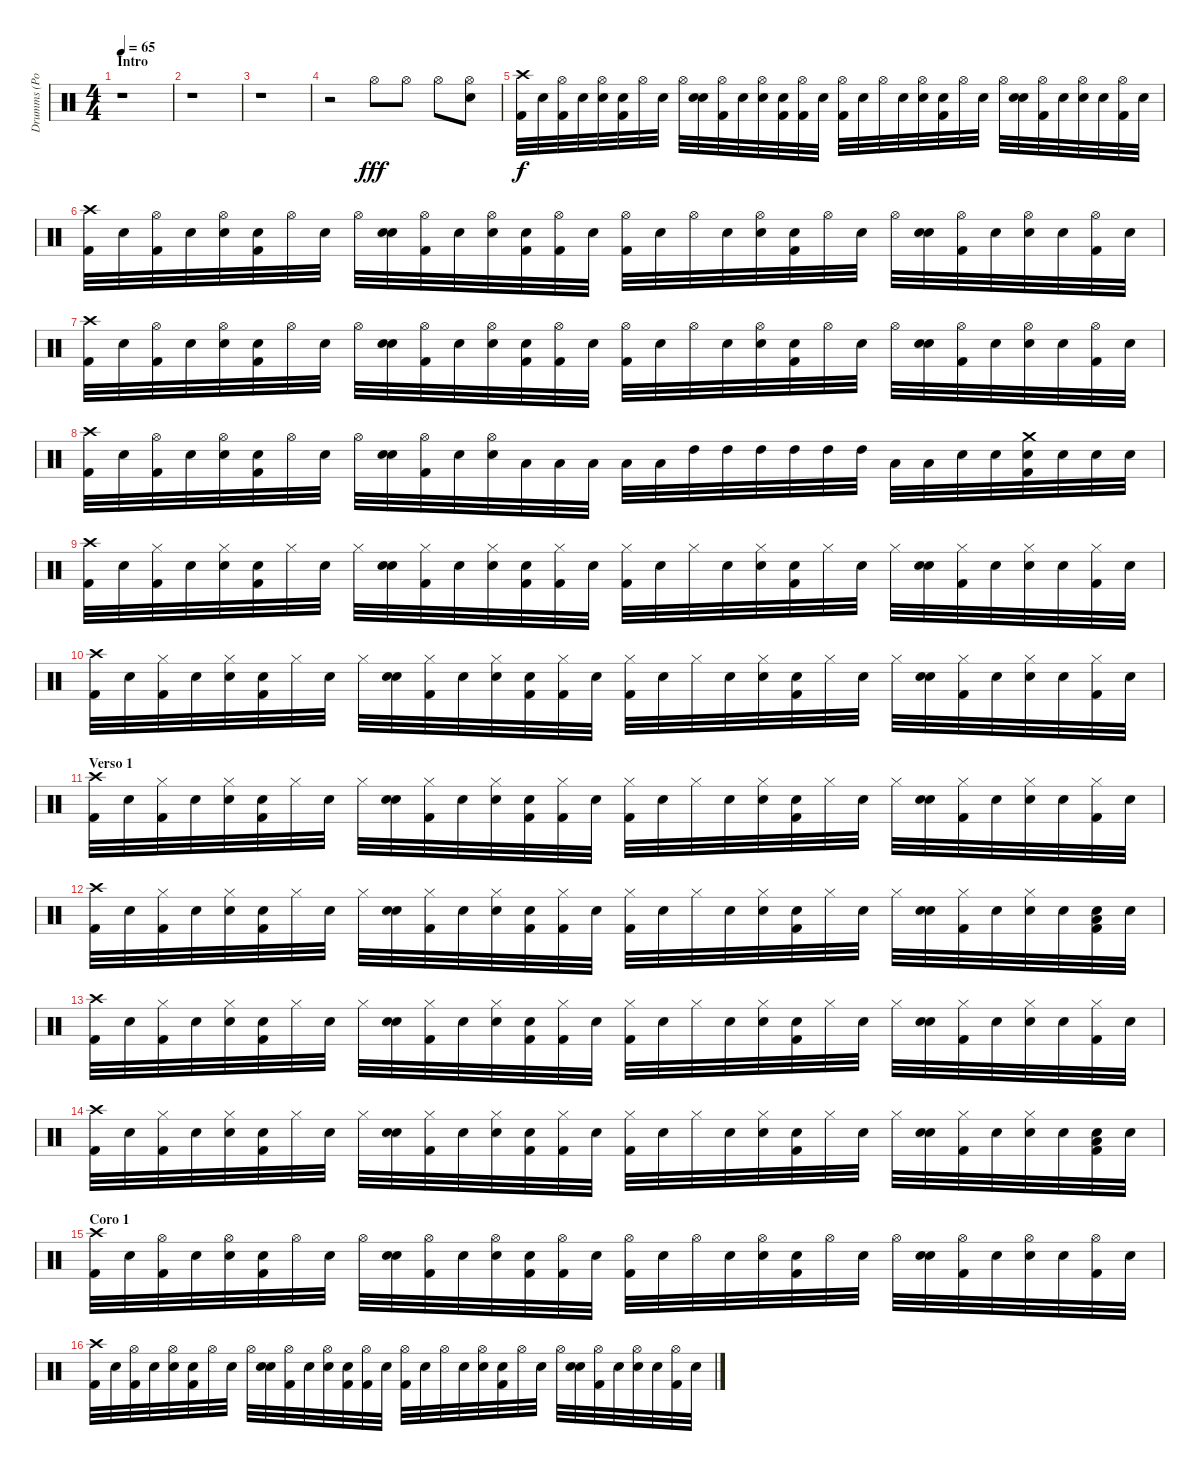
\track ("Drumms (Poll0)" "Drumms (Po") {instrument percussion}
\staff {score}
\articulation defaults
\ts (4 4)
\section ("" "Intro")
\tempo 65
\clef neutral
\ks c
r.1{dy fff} |
r.1 |
r.1 |
r.2 "Hi-Hat (open)".8 "Hi-Hat (open)".8 "Hi-Hat (open)".8 ("Hi-Hat (open)" "Snare (hit) 2").8 |
("Crash high (hit)" "Kick (hit) 2").32{dy f} "Snare (hit)".32 ("Hi-Hat (open)" "Kick (hit) 2").32 "Snare (hit)".32 ("Hi-Hat (open)" "Snare (hit) 2").32 ("Snare (hit)" "Kick (hit) 2").32 "Hi-Hat (open)".32 "Snare (hit)".32 "Hi-Hat (open)".32 ("Snare (hit)" "Snare (hit) 2").32 ("Hi-Hat (open)" "Kick (hit) 2").32 "Snare (hit)".32 ("Hi-Hat (open)" "Snare (hit) 2").32 ("Snare (hit)" "Kick (hit) 2").32 ("Hi-Hat (open)" "Kick (hit) 2").32 "Snare (hit)".32 ("Hi-Hat (open)" "Kick (hit) 2").32 "Snare (hit)".32 "Hi-Hat (open)".32 "Snare (hit)".32 ("Hi-Hat (open)" "Snare (hit) 2").32 ("Snare (hit)" "Kick (hit) 2").32 "Hi-Hat (open)".32 "Snare (hit)".32 "Hi-Hat (open)".32 ("Snare (hit)" "Snare (hit) 2").32 ("Hi-Hat (open)" "Kick (hit) 2").32 "Snare (hit)".32 ("Hi-Hat (open)" "Snare (hit) 2").32 "Snare (hit)".32 ("Hi-Hat (open)" "Kick (hit) 2").32 "Snare (hit)".32 |
("Crash high (hit)" "Kick (hit) 2").32 "Snare (hit)".32 ("Hi-Hat (open)" "Kick (hit) 2").32 "Snare (hit)".32 ("Hi-Hat (open)" "Snare (hit) 2").32 ("Snare (hit)" "Kick (hit) 2").32 "Hi-Hat (open)".32 "Snare (hit)".32 "Hi-Hat (open)".32 ("Snare (hit)" "Snare (hit) 2").32 ("Hi-Hat (open)" "Kick (hit) 2").32 "Snare (hit)".32 ("Hi-Hat (open)" "Snare (hit) 2").32 ("Snare (hit)" "Kick (hit) 2").32 ("Hi-Hat (open)" "Kick (hit) 2").32 "Snare (hit)".32 ("Hi-Hat (open)" "Kick (hit) 2").32 "Snare (hit)".32 "Hi-Hat (open)".32 "Snare (hit)".32 ("Hi-Hat (open)" "Snare (hit) 2").32 ("Snare (hit)" "Kick (hit) 2").32 "Hi-Hat (open)".32 "Snare (hit)".32 "Hi-Hat (open)".32 ("Snare (hit)" "Snare (hit) 2").32 ("Hi-Hat (open)" "Kick (hit) 2").32 "Snare (hit)".32 ("Hi-Hat (open)" "Snare (hit) 2").32 "Snare (hit)".32 ("Hi-Hat (open)" "Kick (hit) 2").32 "Snare (hit)".32 |
("Crash high (hit)" "Kick (hit) 2").32 "Snare (hit)".32 ("Hi-Hat (open)" "Kick (hit) 2").32 "Snare (hit)".32 ("Hi-Hat (open)" "Snare (hit) 2").32 ("Snare (hit)" "Kick (hit) 2").32 "Hi-Hat (open)".32 "Snare (hit)".32 "Hi-Hat (open)".32 ("Snare (hit)" "Snare (hit) 2").32 ("Hi-Hat (open)" "Kick (hit) 2").32 "Snare (hit)".32 ("Hi-Hat (open)" "Snare (hit) 2").32 ("Snare (hit)" "Kick (hit) 2").32 ("Hi-Hat (open)" "Kick (hit) 2").32 "Snare (hit)".32 ("Hi-Hat (open)" "Kick (hit) 2").32 "Snare (hit)".32 "Hi-Hat (open)".32 "Snare (hit)".32 ("Hi-Hat (open)" "Snare (hit) 2").32 ("Snare (hit)" "Kick (hit) 2").32 "Hi-Hat (open)".32 "Snare (hit)".32 "Hi-Hat (open)".32 ("Snare (hit)" "Snare (hit) 2").32 ("Hi-Hat (open)" "Kick (hit) 2").32 "Snare (hit)".32 ("Hi-Hat (open)" "Snare (hit) 2").32 "Snare (hit)".32 ("Hi-Hat (open)" "Kick (hit) 2").32 "Snare (hit)".32 |
("Crash high (hit)" "Kick (hit) 2").32 "Snare (hit)".32 ("Hi-Hat (open)" "Kick (hit) 2").32 "Snare (hit)".32 ("Hi-Hat (open)" "Snare (hit) 2").32 ("Snare (hit)" "Kick (hit) 2").32 "Hi-Hat (open)".32 "Snare (hit)".32 "Hi-Hat (open)".32 ("Snare (hit)" "Snare (hit) 2").32 ("Hi-Hat (open)" "Kick (hit) 2").32 "Snare (hit)".32 ("Hi-Hat (open)" "Snare (hit) 2").32 "Low Floor Tom (hit)".32 "Low Floor Tom (hit)".32 "Low Floor Tom (hit)".32 "Low Floor Tom (hit)".32 "Low Floor Tom (hit)".32 "High Tom (hit)".32 "High Tom (hit)".32 "High Tom (hit)".32 "High Tom (hit)".32 "High Tom (hit)".32 "High Tom (hit)".32 "Low Tom (hit)".32 "Low Tom (hit)".32 "Snare (hit)".32 "Snare (hit)".32 ("Crash medium (hit)" "Snare (hit)" "Kick (hit) 2").32 "Snare (hit)".32 "Snare (hit)".32 "Snare (hit)".32 |
("Crash high (hit)" "Kick (hit) 2").32 "Snare (hit)".32 ("Hi-Hat (closed)" "Kick (hit) 2").32 "Snare (hit)".32 ("Hi-Hat (closed)" "Snare (hit) 2").32 ("Snare (hit)" "Kick (hit) 2").32 "Hi-Hat (closed)".32 "Snare (hit)".32 "Hi-Hat (closed)".32 ("Snare (hit)" "Snare (hit) 2").32 ("Hi-Hat (closed)" "Kick (hit) 2").32 "Snare (hit)".32 ("Hi-Hat (closed)" "Snare (hit) 2").32 ("Snare (hit)" "Kick (hit) 2").32 ("Hi-Hat (closed)" "Kick (hit) 2").32 "Snare (hit)".32 ("Hi-Hat (closed)" "Kick (hit) 2").32 "Snare (hit)".32 "Hi-Hat (closed)".32 "Snare (hit)".32 ("Hi-Hat (closed)" "Snare (hit) 2").32 ("Snare (hit)" "Kick (hit) 2").32 "Hi-Hat (closed)".32 "Snare (hit)".32 "Hi-Hat (closed)".32 ("Snare (hit)" "Snare (hit) 2").32 ("Hi-Hat (closed)" "Kick (hit) 2").32 "Snare (hit)".32 ("Hi-Hat (closed)" "Snare (hit) 2").32 "Snare (hit)".32 ("Hi-Hat (closed)" "Kick (hit) 2").32 "Snare (hit)".32 |
("Crash high (hit)" "Kick (hit) 2").32 "Snare (hit)".32 ("Hi-Hat (closed)" "Kick (hit) 2").32 "Snare (hit)".32 ("Hi-Hat (closed)" "Snare (hit) 2").32 ("Snare (hit)" "Kick (hit) 2").32 "Hi-Hat (closed)".32 "Snare (hit)".32 "Hi-Hat (closed)".32 ("Snare (hit)" "Snare (hit) 2").32 ("Hi-Hat (closed)" "Kick (hit) 2").32 "Snare (hit)".32 ("Hi-Hat (closed)" "Snare (hit) 2").32 ("Snare (hit)" "Kick (hit) 2").32 ("Hi-Hat (closed)" "Kick (hit) 2").32 "Snare (hit)".32 ("Hi-Hat (closed)" "Kick (hit) 2").32 "Snare (hit)".32 "Hi-Hat (closed)".32 "Snare (hit)".32 ("Hi-Hat (closed)" "Snare (hit) 2").32 ("Snare (hit)" "Kick (hit) 2").32 "Hi-Hat (closed)".32 "Snare (hit)".32 "Hi-Hat (closed)".32 ("Snare (hit)" "Snare (hit) 2").32 ("Hi-Hat (closed)" "Kick (hit) 2").32 "Snare (hit)".32 ("Hi-Hat (closed)" "Snare (hit) 2").32 "Snare (hit)".32 ("Hi-Hat (closed)" "Kick (hit) 2").32 "Snare (hit)".32 |
\section ("" "Verso 1")
("Crash high (hit)" "Kick (hit) 2").32 "Snare (hit)".32 ("Hi-Hat (closed)" "Kick (hit) 2").32 "Snare (hit)".32 ("Hi-Hat (closed)" "Snare (hit) 2").32 ("Snare (hit)" "Kick (hit) 2").32 "Hi-Hat (closed)".32 "Snare (hit)".32 "Hi-Hat (closed)".32 ("Snare (hit)" "Snare (hit) 2").32 ("Hi-Hat (closed)" "Kick (hit) 2").32 "Snare (hit)".32 ("Hi-Hat (closed)" "Snare (hit) 2").32 ("Snare (hit)" "Kick (hit) 2").32 ("Hi-Hat (closed)" "Kick (hit) 2").32 "Snare (hit)".32 ("Hi-Hat (closed)" "Kick (hit) 2").32 "Snare (hit)".32 "Hi-Hat (closed)".32 "Snare (hit)".32 ("Hi-Hat (closed)" "Snare (hit) 2").32 ("Snare (hit)" "Kick (hit) 2").32 "Hi-Hat (closed)".32 "Snare (hit)".32 "Hi-Hat (closed)".32 ("Snare (hit)" "Snare (hit) 2").32 ("Hi-Hat (closed)" "Kick (hit) 2").32 "Snare (hit)".32 ("Hi-Hat (closed)" "Snare (hit) 2").32 "Snare (hit)".32 ("Hi-Hat (closed)" "Kick (hit) 2").32 "Snare (hit)".32 |
("Crash high (hit)" "Kick (hit) 2").32 "Snare (hit)".32 ("Hi-Hat (closed)" "Kick (hit) 2").32 "Snare (hit)".32 ("Hi-Hat (closed)" "Snare (hit) 2").32 ("Snare (hit)" "Kick (hit) 2").32 "Hi-Hat (closed)".32 "Snare (hit)".32 "Hi-Hat (closed)".32 ("Snare (hit)" "Snare (hit) 2").32 ("Hi-Hat (closed)" "Kick (hit) 2").32 "Snare (hit)".32 ("Hi-Hat (closed)" "Snare (hit) 2").32 ("Snare (hit)" "Kick (hit) 2").32 ("Hi-Hat (closed)" "Kick (hit) 2").32 "Snare (hit)".32 ("Hi-Hat (closed)" "Kick (hit) 2").32 "Snare (hit)".32 "Hi-Hat (closed)".32 "Snare (hit)".32 ("Hi-Hat (closed)" "Snare (hit) 2").32 ("Snare (hit)" "Kick (hit) 2").32 "Hi-Hat (closed)".32 "Snare (hit)".32 "Hi-Hat (closed)".32 ("Snare (hit)" "Snare (hit) 2").32 ("Hi-Hat (closed)" "Kick (hit) 2").32 "Snare (hit)".32 ("Hi-Hat (closed)" "Snare (hit) 2").32 "Snare (hit)".32 ("Snare (hit) 2" "Low Tom (hit)" "Kick (hit) 2").32 "Snare (hit)".32 |
("Crash high (hit)" "Kick (hit) 2").32 "Snare (hit)".32 ("Hi-Hat (closed)" "Kick (hit) 2").32 "Snare (hit)".32 ("Hi-Hat (closed)" "Snare (hit) 2").32 ("Snare (hit)" "Kick (hit) 2").32 "Hi-Hat (closed)".32 "Snare (hit)".32 "Hi-Hat (closed)".32 ("Snare (hit)" "Snare (hit) 2").32 ("Hi-Hat (closed)" "Kick (hit) 2").32 "Snare (hit)".32 ("Hi-Hat (closed)" "Snare (hit) 2").32 ("Snare (hit)" "Kick (hit) 2").32 ("Hi-Hat (closed)" "Kick (hit) 2").32 "Snare (hit)".32 ("Hi-Hat (closed)" "Kick (hit) 2").32 "Snare (hit)".32 "Hi-Hat (closed)".32 "Snare (hit)".32 ("Hi-Hat (closed)" "Snare (hit) 2").32 ("Snare (hit)" "Kick (hit) 2").32 "Hi-Hat (closed)".32 "Snare (hit)".32 "Hi-Hat (closed)".32 ("Snare (hit)" "Snare (hit) 2").32 ("Hi-Hat (closed)" "Kick (hit) 2").32 "Snare (hit)".32 ("Hi-Hat (closed)" "Snare (hit) 2").32 "Snare (hit)".32 ("Hi-Hat (closed)" "Kick (hit) 2").32 "Snare (hit)".32 |
("Crash high (hit)" "Kick (hit) 2").32 "Snare (hit)".32 ("Hi-Hat (closed)" "Kick (hit) 2").32 "Snare (hit)".32 ("Hi-Hat (closed)" "Snare (hit) 2").32 ("Snare (hit)" "Kick (hit) 2").32 "Hi-Hat (closed)".32 "Snare (hit)".32 "Hi-Hat (closed)".32 ("Snare (hit)" "Snare (hit) 2").32 ("Hi-Hat (closed)" "Kick (hit) 2").32 "Snare (hit)".32 ("Hi-Hat (closed)" "Snare (hit) 2").32 ("Snare (hit)" "Kick (hit) 2").32 ("Hi-Hat (closed)" "Kick (hit) 2").32 "Snare (hit)".32 ("Hi-Hat (closed)" "Kick (hit) 2").32 "Snare (hit)".32 "Hi-Hat (closed)".32 "Snare (hit)".32 ("Hi-Hat (closed)" "Snare (hit) 2").32 ("Snare (hit)" "Kick (hit) 2").32 "Hi-Hat (closed)".32 "Snare (hit)".32 "Hi-Hat (closed)".32 ("Snare (hit)" "Snare (hit) 2").32 ("Hi-Hat (closed)" "Kick (hit) 2").32 "Snare (hit)".32 ("Hi-Hat (closed)" "Snare (hit) 2").32 "Snare (hit)".32 ("Snare (hit) 2" "Low Tom (hit)" "Kick (hit) 2").32 "Snare (hit)".32 |
\section ("" "Coro 1")
("Crash high (hit)" "Kick (hit) 2").32 "Snare (hit)".32 ("Hi-Hat (open)" "Kick (hit) 2").32 "Snare (hit)".32 ("Hi-Hat (open)" "Snare (hit) 2").32 ("Snare (hit)" "Kick (hit) 2").32 "Hi-Hat (open)".32 "Snare (hit)".32 "Hi-Hat (open)".32 ("Snare (hit)" "Snare (hit) 2").32 ("Hi-Hat (open)" "Kick (hit) 2").32 "Snare (hit)".32 ("Hi-Hat (open)" "Snare (hit) 2").32 ("Snare (hit)" "Kick (hit) 2").32 ("Hi-Hat (open)" "Kick (hit) 2").32 "Snare (hit)".32 ("Hi-Hat (open)" "Kick (hit) 2").32 "Snare (hit)".32 "Hi-Hat (open)".32 "Snare (hit)".32 ("Hi-Hat (open)" "Snare (hit) 2").32 ("Snare (hit)" "Kick (hit) 2").32 "Hi-Hat (open)".32 "Snare (hit)".32 "Hi-Hat (open)".32 ("Snare (hit)" "Snare (hit) 2").32 ("Hi-Hat (open)" "Kick (hit) 2").32 "Snare (hit)".32 ("Hi-Hat (open)" "Snare (hit) 2").32 "Snare (hit)".32 ("Hi-Hat (open)" "Kick (hit) 2").32 "Snare (hit)".32 |
("Crash high (hit)" "Kick (hit) 2").32 "Snare (hit)".32 ("Hi-Hat (open)" "Kick (hit) 2").32 "Snare (hit)".32 ("Hi-Hat (open)" "Snare (hit) 2").32 ("Snare (hit)" "Kick (hit) 2").32 "Hi-Hat (open)".32 "Snare (hit)".32 "Hi-Hat (open)".32 ("Snare (hit)" "Snare (hit) 2").32 ("Hi-Hat (open)" "Kick (hit) 2").32 "Snare (hit)".32 ("Hi-Hat (open)" "Snare (hit) 2").32 ("Snare (hit)" "Kick (hit) 2").32 ("Hi-Hat (open)" "Kick (hit) 2").32 "Snare (hit)".32 ("Hi-Hat (open)" "Kick (hit) 2").32 "Snare (hit)".32 "Hi-Hat (open)".32 "Snare (hit)".32 ("Hi-Hat (open)" "Snare (hit) 2").32 ("Snare (hit)" "Kick (hit) 2").32 "Hi-Hat (open)".32 "Snare (hit)".32 "Hi-Hat (open)".32 ("Snare (hit)" "Snare (hit) 2").32 ("Hi-Hat (open)" "Kick (hit) 2").32 "Snare (hit)".32 ("Hi-Hat (open)" "Snare (hit) 2").32 "Snare (hit)".32 ("Hi-Hat (open)" "Kick (hit) 2").32 "Snare (hit)".32
